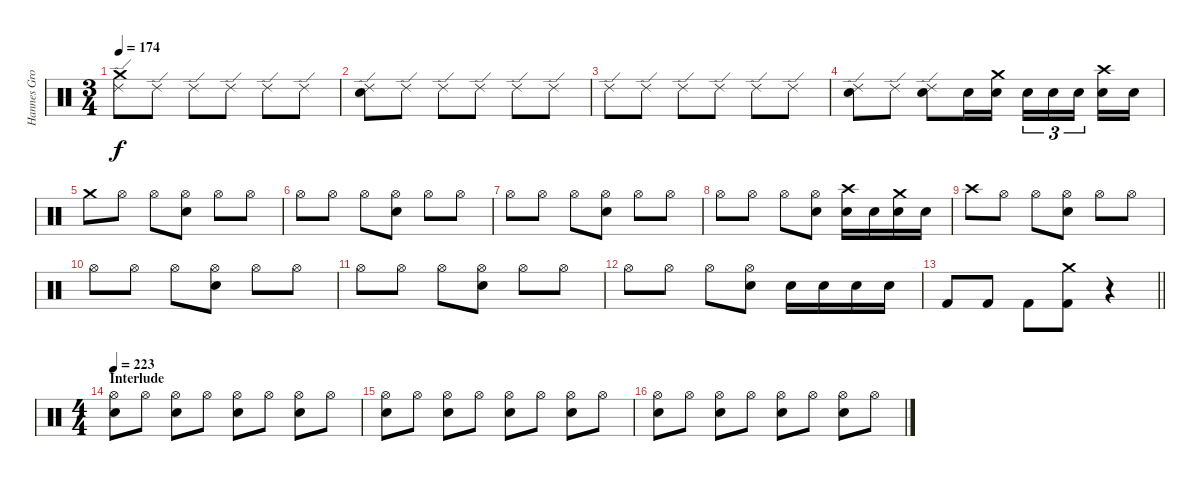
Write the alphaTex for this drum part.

\track ("Hannes Grossmann" "Hannes Gro") {instrument percussion}
\staff {score}
\articulation defaults
\ts (3 4)
\tempo 174
\clef neutral
\ks c
("Ride (edge) 2" "Crash medium (hit)").8{dy f} "Ride (edge) 2".8 "Ride (edge) 2".8 "Ride (edge) 2".8 "Ride (edge) 2".8 "Ride (edge) 2".8 |
("Ride (edge) 2" "Electric Snare (hit)").8 "Ride (edge) 2".8 "Ride (edge) 2".8 "Ride (edge) 2".8 "Ride (edge) 2".8 "Ride (edge) 2".8 |
"Ride (edge) 2".8 "Ride (edge) 2".8 "Ride (edge) 2".8 "Ride (edge) 2".8 "Ride (edge) 2".8 "Ride (edge) 2".8 |
("Ride (edge) 2" "Electric Snare (hit)").8 "Ride (edge) 2".8 ("Ride (edge) 2" "Electric Snare (hit)").8 "Electric Snare (hit)".16 ("Crash medium (hit)" "Electric Snare (hit)").16 "Electric Snare (hit)".16{tu (3 2)} "Electric Snare (hit)".16{tu (3 2)} "Electric Snare (hit)".16{tu (3 2) beam splitsecondary} ("Crash high (hit)" "Electric Snare (hit)").16 "Electric Snare (hit)".16 |
"Crash medium (hit)".8 "Hi-Hat (open)".8 "Hi-Hat (open)".8 ("Hi-Hat (open)" "Electric Snare (hit)").8 "Hi-Hat (open)".8 "Hi-Hat (open)".8 |
"Hi-Hat (open)".8 "Hi-Hat (open)".8 "Hi-Hat (open)".8 ("Hi-Hat (open)" "Electric Snare (hit)").8 "Hi-Hat (open)".8 "Hi-Hat (open)".8 |
"Hi-Hat (open)".8 "Hi-Hat (open)".8 "Hi-Hat (open)".8 ("Hi-Hat (open)" "Electric Snare (hit)").8 "Hi-Hat (open)".8 "Hi-Hat (open)".8 |
"Hi-Hat (open)".8 "Hi-Hat (open)".8 "Hi-Hat (open)".8 ("Hi-Hat (open)" "Electric Snare (hit)").8 ("Crash high (hit)" "Electric Snare (hit)").16 "Electric Snare (hit)".16 ("Crash medium (hit)" "Electric Snare (hit)").16 "Electric Snare (hit)".16 |
"Crash high (hit)".8 "Hi-Hat (open)".8 "Hi-Hat (open)".8 ("Hi-Hat (open)" "Electric Snare (hit)").8 "Hi-Hat (open)".8 "Hi-Hat (open)".8 |
"Hi-Hat (open)".8 "Hi-Hat (open)".8 "Hi-Hat (open)".8 ("Hi-Hat (open)" "Electric Snare (hit)").8 "Hi-Hat (open)".8 "Hi-Hat (open)".8 |
"Hi-Hat (open)".8 "Hi-Hat (open)".8 "Hi-Hat (open)".8 ("Hi-Hat (open)" "Electric Snare (hit)").8 "Hi-Hat (open)".8 "Hi-Hat (open)".8 |
"Hi-Hat (open)".8 "Hi-Hat (open)".8 "Hi-Hat (open)".8 ("Hi-Hat (open)" "Electric Snare (hit)").8 "Electric Snare (hit)".16 "Electric Snare (hit)".16 "Electric Snare (hit)".16 "Electric Snare (hit)".16 |
\barLineRight lightlight "Kick (hit) 2".8 "Kick (hit) 2".8 "Kick (hit) 2".8
("Crash medium (hit)" "Kick (hit) 2").8 r.4 |
\ts (4 4)
\section ("" "Interlude")
\tempo 223
("Hi-Hat (open)" "Electric Snare (hit)").8 "Hi-Hat (open)".8 ("Hi-Hat (open)" "Electric Snare (hit)").8 "Hi-Hat (open)".8 ("Hi-Hat (open)" "Electric Snare (hit)").8 "Hi-Hat (open)".8 ("Hi-Hat (open)" "Electric Snare (hit)").8 "Hi-Hat (open)".8 |
("Hi-Hat (open)" "Electric Snare (hit)").8 "Hi-Hat (open)".8 ("Hi-Hat (open)" "Electric Snare (hit)").8 "Hi-Hat (open)".8 ("Hi-Hat (open)" "Electric Snare (hit)").8 "Hi-Hat (open)".8 ("Hi-Hat (open)" "Electric Snare (hit)").8 "Hi-Hat (open)".8 |
("Hi-Hat (open)" "Electric Snare (hit)").8 "Hi-Hat (open)".8 ("Hi-Hat (open)" "Electric Snare (hit)").8 "Hi-Hat (open)".8 ("Hi-Hat (open)" "Electric Snare (hit)").8 "Hi-Hat (open)".8 ("Hi-Hat (open)" "Electric Snare (hit)").8 "Hi-Hat (open)".8
